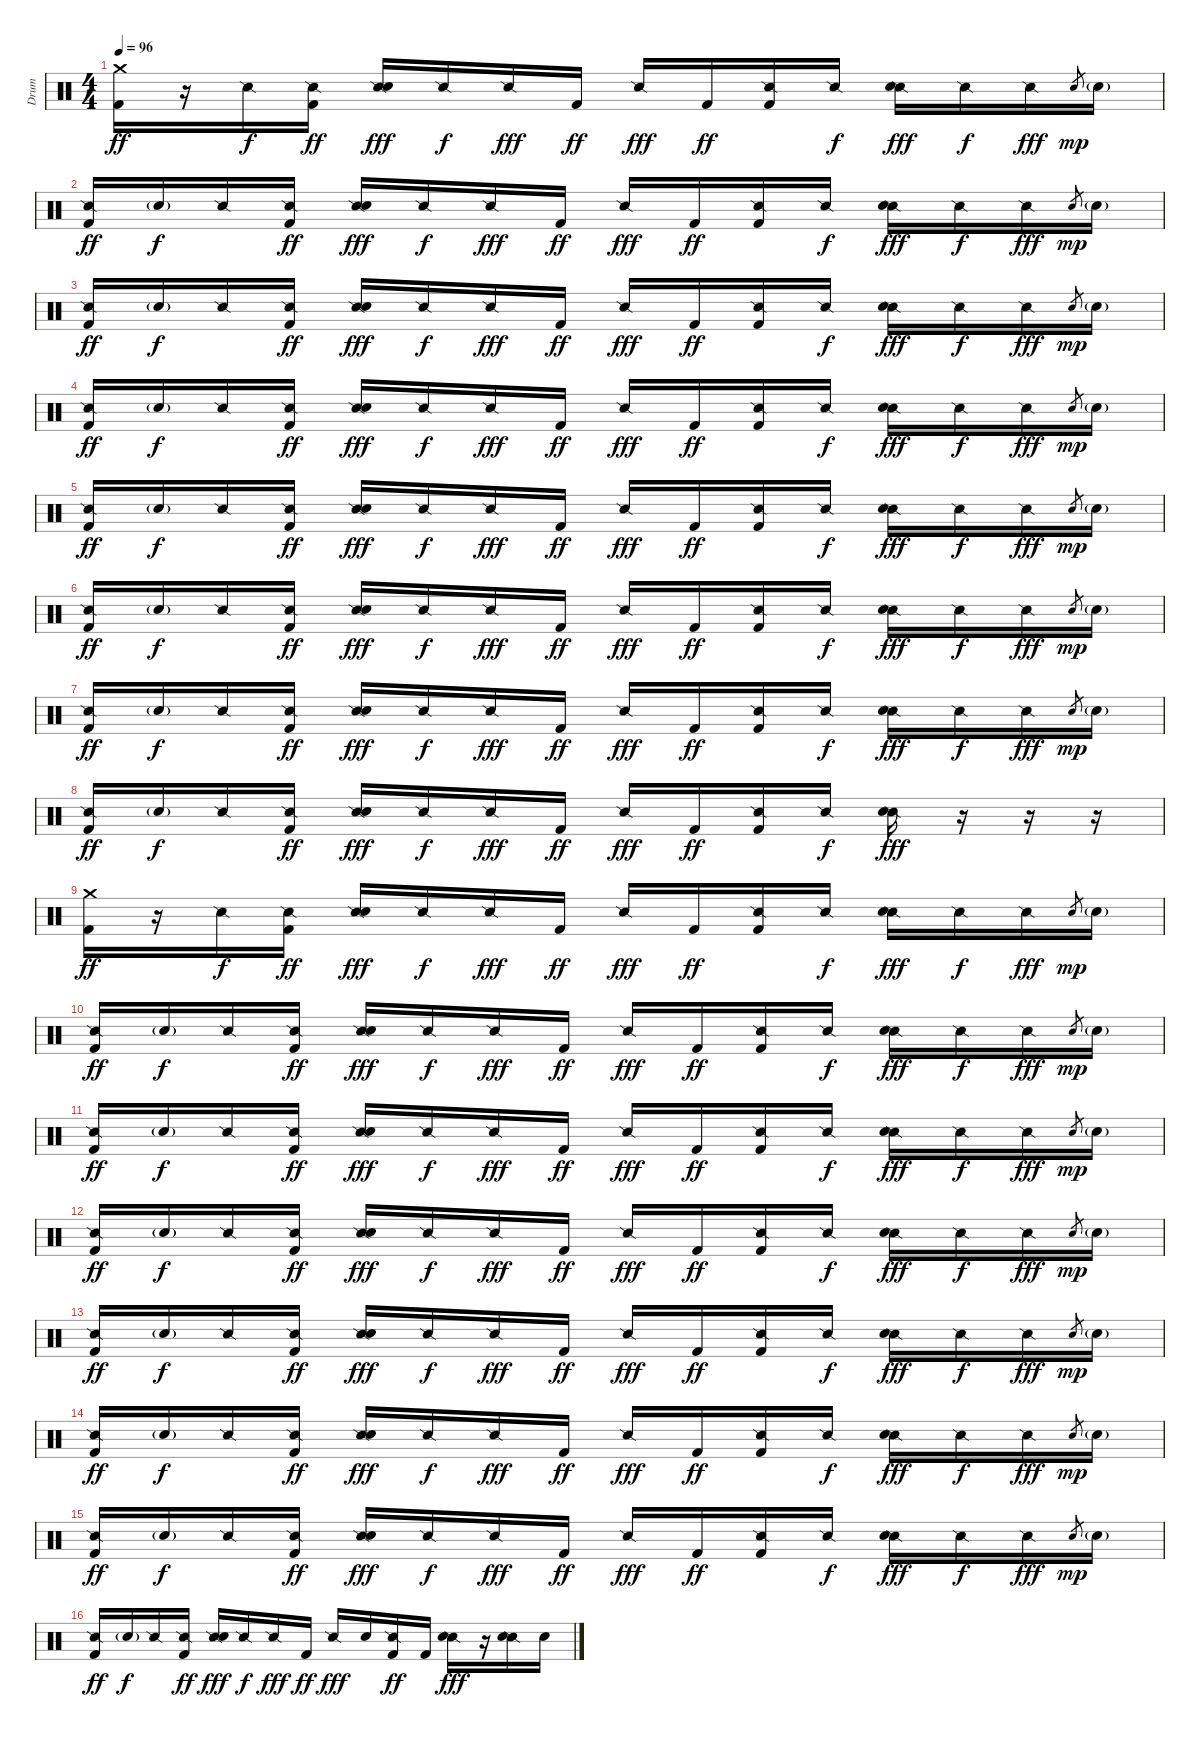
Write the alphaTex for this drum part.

\track ("Drum" "Drum") {instrument percussion}
\staff {score}
\articulation defaults
\ts (4 4)
\tempo 96
\clef neutral
\ks c
("Crash medium (hit)" "Kick (hit) 2").16{dy ff} r.16 "Snare (side stick) 2".16{dy f} ("Snare (side stick) 2" "Kick (hit) 2").16{dy ff} ("Snare (side stick) 2" "Snare (hit) 2").16{dy fff} "Snare (side stick) 2".16{dy f} "Snare (side stick) 2".16{dy fff} "Kick (hit) 2".16{dy ff} "Snare (side stick) 2".16{dy fff} "Kick (hit) 2".16{dy ff} ("Snare (side stick) 2" "Kick (hit) 2").16 "Snare (side stick) 2".16{dy f} ("Snare (side stick) 2" "Snare (hit) 2").16{dy fff} "Snare (side stick) 2".16{dy f} "Snare (side stick) 2".16{dy fff} "Snare (hit) 2".8{gr dy mp} "Snare (hit) 2"{g}.16 |
("Snare (side stick) 2" "Kick (hit) 2").16{dy ff} "Snare (hit) 2"{g}.16{dy f} "Snare (side stick) 2".16 ("Snare (side stick) 2" "Kick (hit) 2").16{dy ff} ("Snare (side stick) 2" "Snare (hit) 2").16{dy fff} "Snare (side stick) 2".16{dy f} "Snare (side stick) 2".16{dy fff} "Kick (hit) 2".16{dy ff} "Snare (side stick) 2".16{dy fff} "Kick (hit) 2".16{dy ff} ("Snare (side stick) 2" "Kick (hit) 2").16 "Snare (side stick) 2".16{dy f} ("Snare (side stick) 2" "Snare (hit) 2").16{dy fff} "Snare (side stick) 2".16{dy f} "Snare (side stick) 2".16{dy fff} "Snare (hit) 2".8{gr dy mp} "Snare (hit) 2"{g}.16 |
("Snare (side stick) 2" "Kick (hit) 2").16{dy ff} "Snare (hit) 2"{g}.16{dy f} "Snare (side stick) 2".16 ("Snare (side stick) 2" "Kick (hit) 2").16{dy ff} ("Snare (side stick) 2" "Snare (hit) 2").16{dy fff} "Snare (side stick) 2".16{dy f} "Snare (side stick) 2".16{dy fff} "Kick (hit) 2".16{dy ff} "Snare (side stick) 2".16{dy fff} "Kick (hit) 2".16{dy ff} ("Snare (side stick) 2" "Kick (hit) 2").16 "Snare (side stick) 2".16{dy f} ("Snare (side stick) 2" "Snare (hit) 2").16{dy fff} "Snare (side stick) 2".16{dy f} "Snare (side stick) 2".16{dy fff} "Snare (hit) 2".8{gr dy mp} "Snare (hit) 2"{g}.16 |
("Snare (side stick) 2" "Kick (hit) 2").16{dy ff} "Snare (hit) 2"{g}.16{dy f} "Snare (side stick) 2".16 ("Snare (side stick) 2" "Kick (hit) 2").16{dy ff} ("Snare (side stick) 2" "Snare (hit) 2").16{dy fff} "Snare (side stick) 2".16{dy f} "Snare (side stick) 2".16{dy fff} "Kick (hit) 2".16{dy ff} "Snare (side stick) 2".16{dy fff} "Kick (hit) 2".16{dy ff} ("Snare (side stick) 2" "Kick (hit) 2").16 "Snare (side stick) 2".16{dy f} ("Snare (side stick) 2" "Snare (hit) 2").16{dy fff} "Snare (side stick) 2".16{dy f} "Snare (side stick) 2".16{dy fff} "Snare (hit) 2".8{gr dy mp} "Snare (hit) 2"{g}.16 |
("Snare (side stick) 2" "Kick (hit) 2").16{dy ff} "Snare (hit) 2"{g}.16{dy f} "Snare (side stick) 2".16 ("Snare (side stick) 2" "Kick (hit) 2").16{dy ff} ("Snare (side stick) 2" "Snare (hit) 2").16{dy fff} "Snare (side stick) 2".16{dy f} "Snare (side stick) 2".16{dy fff} "Kick (hit) 2".16{dy ff} "Snare (side stick) 2".16{dy fff} "Kick (hit) 2".16{dy ff} ("Snare (side stick) 2" "Kick (hit) 2").16 "Snare (side stick) 2".16{dy f} ("Snare (side stick) 2" "Snare (hit) 2").16{dy fff} "Snare (side stick) 2".16{dy f} "Snare (side stick) 2".16{dy fff} "Snare (hit) 2".8{gr dy mp} "Snare (hit) 2"{g}.16 |
("Snare (side stick) 2" "Kick (hit) 2").16{dy ff} "Snare (hit) 2"{g}.16{dy f} "Snare (side stick) 2".16 ("Snare (side stick) 2" "Kick (hit) 2").16{dy ff} ("Snare (side stick) 2" "Snare (hit) 2").16{dy fff} "Snare (side stick) 2".16{dy f} "Snare (side stick) 2".16{dy fff} "Kick (hit) 2".16{dy ff} "Snare (side stick) 2".16{dy fff} "Kick (hit) 2".16{dy ff} ("Snare (side stick) 2" "Kick (hit) 2").16 "Snare (side stick) 2".16{dy f} ("Snare (side stick) 2" "Snare (hit) 2").16{dy fff} "Snare (side stick) 2".16{dy f} "Snare (side stick) 2".16{dy fff} "Snare (hit) 2".8{gr dy mp} "Snare (hit) 2"{g}.16 |
("Snare (side stick) 2" "Kick (hit) 2").16{dy ff} "Snare (hit) 2"{g}.16{dy f} "Snare (side stick) 2".16 ("Snare (side stick) 2" "Kick (hit) 2").16{dy ff} ("Snare (side stick) 2" "Snare (hit) 2").16{dy fff} "Snare (side stick) 2".16{dy f} "Snare (side stick) 2".16{dy fff} "Kick (hit) 2".16{dy ff} "Snare (side stick) 2".16{dy fff} "Kick (hit) 2".16{dy ff} ("Snare (side stick) 2" "Kick (hit) 2").16 "Snare (side stick) 2".16{dy f} ("Snare (side stick) 2" "Snare (hit) 2").16{dy fff} "Snare (side stick) 2".16{dy f} "Snare (side stick) 2".16{dy fff} "Snare (hit) 2".8{gr dy mp} "Snare (hit) 2"{g}.16 |
("Snare (side stick) 2" "Kick (hit) 2").16{dy ff} "Snare (hit) 2"{g}.16{dy f} "Snare (side stick) 2".16 ("Snare (side stick) 2" "Kick (hit) 2").16{dy ff} ("Snare (side stick) 2" "Snare (hit) 2").16{dy fff} "Snare (side stick) 2".16{dy f} "Snare (side stick) 2".16{dy fff} "Kick (hit) 2".16{dy ff} "Snare (side stick) 2".16{dy fff} "Kick (hit) 2".16{dy ff} ("Snare (side stick) 2" "Kick (hit) 2").16 "Snare (side stick) 2".16{dy f} ("Snare (side stick) 2" "Snare (hit) 2").16{dy fff} r.16 r.16 r.16 |
("Crash medium (hit)" "Kick (hit) 2").16{dy ff} r.16 "Snare (side stick) 2".16{dy f} ("Snare (side stick) 2" "Kick (hit) 2").16{dy ff} ("Snare (side stick) 2" "Snare (hit) 2").16{dy fff} "Snare (side stick) 2".16{dy f} "Snare (side stick) 2".16{dy fff} "Kick (hit) 2".16{dy ff} "Snare (side stick) 2".16{dy fff} "Kick (hit) 2".16{dy ff} ("Snare (side stick) 2" "Kick (hit) 2").16 "Snare (side stick) 2".16{dy f} ("Snare (side stick) 2" "Snare (hit) 2").16{dy fff} "Snare (side stick) 2".16{dy f} "Snare (side stick) 2".16{dy fff} "Snare (hit) 2".8{gr dy mp} "Snare (hit) 2"{g}.16 |
("Snare (side stick) 2" "Kick (hit) 2").16{dy ff} "Snare (hit) 2"{g}.16{dy f} "Snare (side stick) 2".16 ("Snare (side stick) 2" "Kick (hit) 2").16{dy ff} ("Snare (side stick) 2" "Snare (hit) 2").16{dy fff} "Snare (side stick) 2".16{dy f} "Snare (side stick) 2".16{dy fff} "Kick (hit) 2".16{dy ff} "Snare (side stick) 2".16{dy fff} "Kick (hit) 2".16{dy ff} ("Snare (side stick) 2" "Kick (hit) 2").16 "Snare (side stick) 2".16{dy f} ("Snare (side stick) 2" "Snare (hit) 2").16{dy fff} "Snare (side stick) 2".16{dy f} "Snare (side stick) 2".16{dy fff} "Snare (hit) 2".8{gr dy mp} "Snare (hit) 2"{g}.16 |
("Snare (side stick) 2" "Kick (hit) 2").16{dy ff} "Snare (hit) 2"{g}.16{dy f} "Snare (side stick) 2".16 ("Snare (side stick) 2" "Kick (hit) 2").16{dy ff} ("Snare (side stick) 2" "Snare (hit) 2").16{dy fff} "Snare (side stick) 2".16{dy f} "Snare (side stick) 2".16{dy fff} "Kick (hit) 2".16{dy ff} "Snare (side stick) 2".16{dy fff} "Kick (hit) 2".16{dy ff} ("Snare (side stick) 2" "Kick (hit) 2").16 "Snare (side stick) 2".16{dy f} ("Snare (side stick) 2" "Snare (hit) 2").16{dy fff} "Snare (side stick) 2".16{dy f} "Snare (side stick) 2".16{dy fff} "Snare (hit) 2".8{gr dy mp} "Snare (hit) 2"{g}.16 |
("Snare (side stick) 2" "Kick (hit) 2").16{dy ff} "Snare (hit) 2"{g}.16{dy f} "Snare (side stick) 2".16 ("Snare (side stick) 2" "Kick (hit) 2").16{dy ff} ("Snare (side stick) 2" "Snare (hit) 2").16{dy fff} "Snare (side stick) 2".16{dy f} "Snare (side stick) 2".16{dy fff} "Kick (hit) 2".16{dy ff} "Snare (side stick) 2".16{dy fff} "Kick (hit) 2".16{dy ff} ("Snare (side stick) 2" "Kick (hit) 2").16 "Snare (side stick) 2".16{dy f} ("Snare (side stick) 2" "Snare (hit) 2").16{dy fff} "Snare (side stick) 2".16{dy f} "Snare (side stick) 2".16{dy fff} "Snare (hit) 2".8{gr dy mp} "Snare (hit) 2"{g}.16 |
("Snare (side stick) 2" "Kick (hit) 2").16{dy ff} "Snare (hit) 2"{g}.16{dy f} "Snare (side stick) 2".16 ("Snare (side stick) 2" "Kick (hit) 2").16{dy ff} ("Snare (side stick) 2" "Snare (hit) 2").16{dy fff} "Snare (side stick) 2".16{dy f} "Snare (side stick) 2".16{dy fff} "Kick (hit) 2".16{dy ff} "Snare (side stick) 2".16{dy fff} "Kick (hit) 2".16{dy ff} ("Snare (side stick) 2" "Kick (hit) 2").16 "Snare (side stick) 2".16{dy f} ("Snare (side stick) 2" "Snare (hit) 2").16{dy fff} "Snare (side stick) 2".16{dy f} "Snare (side stick) 2".16{dy fff} "Snare (hit) 2".8{gr dy mp} "Snare (hit) 2"{g}.16 |
("Snare (side stick) 2" "Kick (hit) 2").16{dy ff} "Snare (hit) 2"{g}.16{dy f} "Snare (side stick) 2".16 ("Snare (side stick) 2" "Kick (hit) 2").16{dy ff} ("Snare (side stick) 2" "Snare (hit) 2").16{dy fff} "Snare (side stick) 2".16{dy f} "Snare (side stick) 2".16{dy fff} "Kick (hit) 2".16{dy ff} "Snare (side stick) 2".16{dy fff} "Kick (hit) 2".16{dy ff} ("Snare (side stick) 2" "Kick (hit) 2").16 "Snare (side stick) 2".16{dy f} ("Snare (side stick) 2" "Snare (hit) 2").16{dy fff} "Snare (side stick) 2".16{dy f} "Snare (side stick) 2".16{dy fff} "Snare (hit) 2".8{gr dy mp} "Snare (hit) 2"{g}.16 |
("Snare (side stick) 2" "Kick (hit) 2").16{dy ff} "Snare (hit) 2"{g}.16{dy f} "Snare (side stick) 2".16 ("Snare (side stick) 2" "Kick (hit) 2").16{dy ff} ("Snare (side stick) 2" "Snare (hit) 2").16{dy fff} "Snare (side stick) 2".16{dy f} "Snare (side stick) 2".16{dy fff} "Kick (hit) 2".16{dy ff} "Snare (side stick) 2".16{dy fff} "Kick (hit) 2".16{dy ff} ("Snare (side stick) 2" "Kick (hit) 2").16 "Snare (side stick) 2".16{dy f} ("Snare (side stick) 2" "Snare (hit) 2").16{dy fff} "Snare (side stick) 2".16{dy f} "Snare (side stick) 2".16{dy fff} "Snare (hit) 2".8{gr dy mp} "Snare (hit) 2"{g}.16 |
("Snare (side stick) 2" "Kick (hit) 2").16{dy ff} "Snare (hit) 2"{g}.16{dy f} "Snare (side stick) 2".16 ("Snare (side stick) 2" "Kick (hit) 2").16{dy ff} ("Snare (side stick) 2" "Snare (hit) 2").16{dy fff} "Snare (side stick) 2".16{dy f} "Snare (side stick) 2".16{dy fff} "Kick (hit) 2".16{dy ff} "Snare (side stick) 2".16{dy fff} "Snare (hit) 2".16 ("Snare (side stick) 2" "Kick (hit) 2").16{dy ff} "Kick (hit) 2".16 ("Snare (side stick) 2" "Snare (hit) 2").16{dy fff} r.16 ("Snare (side stick) 2" "Snare (hit) 2").16 "Snare (hit) 2".16
